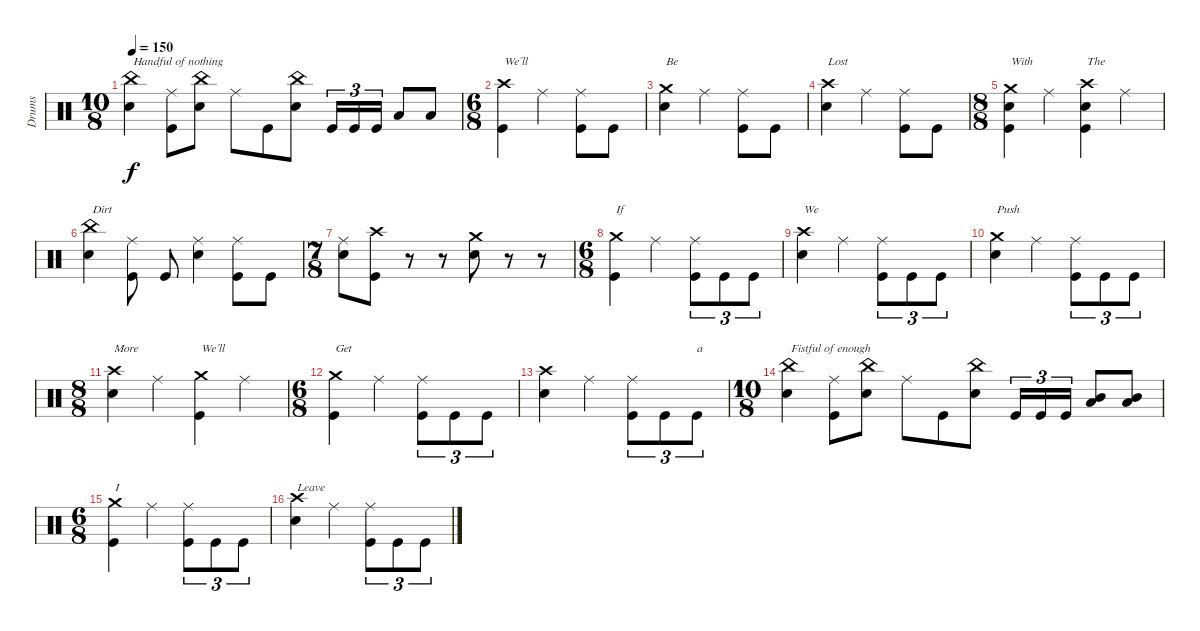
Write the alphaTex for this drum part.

\track ("Drums" "Drums") {instrument percussion}
\staff {score}
\articulation defaults
\ts (10 8)
\tempo 150
\clef neutral
\ks c
("China (hit)" "Snare (hit) 2").4{txt "Handful of nothing" dy f} ("Ride (middle)" "Kick (hit)").8 ("China (hit)" "Snare (hit) 2").8 "Ride (middle)".8 "Kick (hit)".8 ("China (hit)" "Snare (hit) 2").8 "Kick (hit)".16{tu (3 2)} "Kick (hit)".16{tu (3 2)} "Kick (hit)".16{tu (3 2)} "Low Floor Tom (hit)".8 "Low Floor Tom (hit)".8 |
\ts (6 8)
("Crash high (hit)" "Kick (hit)").4{txt "We´ll"} "Ride (middle)".4 ("Ride (middle)" "Kick (hit)").8 "Kick (hit)".8 |
("Crash medium (hit)" "Snare (hit) 2").4{txt "Be"} "Ride (middle)".4 ("Ride (middle)" "Kick (hit)").8 "Kick (hit)".8 |
("Crash high (hit)" "Snare (hit) 2").4{txt "Lost"} "Ride (middle)".4 ("Ride (middle)" "Kick (hit)").8 "Kick (hit)".8 |
\ts (8 8)
("Crash medium (hit)" "Snare (hit) 2" "Kick (hit)").4{txt "With"} "Ride (middle)".4 ("Crash high (hit)" "Snare (hit) 2" "Kick (hit)").4{txt "The"} "Ride (middle)".4 |
("China (hit)" "Snare (hit) 2").4{txt "Dirt"} ("Ride (middle)" "Kick (hit)").8 "Kick (hit)".8 ("Ride (middle)" "Snare (hit) 2").4 ("Ride (middle)" "Kick (hit)").8 "Kick (hit)".8 |
\ts (7 8)
("Ride (middle)" "Snare (hit) 2").8 ("Crash high (hit)" "Kick (hit)").8 r.8 r.8 ("Crash medium (hit)" "Snare (hit) 2").8 r.8 r.8 |
\ts (6 8)
("Crash medium (hit)" "Kick (hit)").4{txt "If"} "Ride (middle)".4 ("Ride (middle)" "Kick (hit)").8{tu (3 2)} "Kick (hit)".8{tu (3 2)} "Kick (hit)".8{tu (3 2)} |
("Crash high (hit)" "Snare (hit) 2").4{txt "We"} "Ride (middle)".4 ("Ride (middle)" "Kick (hit)").8{tu (3 2)} "Kick (hit)".8{tu (3 2)} "Kick (hit)".8{tu (3 2)} |
("Crash medium (hit)" "Snare (hit) 2").4{txt "Push"} "Ride (middle)".4 ("Ride (middle)" "Kick (hit)").8{tu (3 2)} "Kick (hit)".8{tu (3 2)} "Kick (hit)".8{tu (3 2)} |
\ts (8 8)
("Crash high (hit)" "Snare (hit) 2").4{txt "More"} "Ride (middle)".4 ("Crash medium (hit)" "Kick (hit)").4{txt "We´ll"} "Ride (middle)".4 |
\ts (6 8)
("Crash medium (hit)" "Kick (hit)").4{txt "Get"} "Ride (middle)".4 ("Ride (middle)" "Kick (hit)").8{tu (3 2)} "Kick (hit)".8{tu (3 2)} "Kick (hit)".8{tu (3 2)} |
("Crash high (hit)" "Snare (hit) 2").4 "Ride (middle)".4 ("Ride (middle)" "Kick (hit)").8{tu (3 2)} "Kick (hit)".8{tu (3 2)} "Kick (hit)".8{tu (3 2) txt "a"} |
\ts (10 8)
("China (hit)" "Snare (hit) 2").4{txt "Fistful of enough"} ("Ride (middle)" "Kick (hit)").8 ("China (hit)" "Snare (hit) 2").8 "Ride (middle)".8 "Kick (hit)".8 ("China (hit)" "Snare (hit) 2").8 "Kick (hit)".16{tu (3 2)} "Kick (hit)".16{tu (3 2)} "Kick (hit)".16{tu (3 2)} ("Mid Tom (hit)" "Low Floor Tom (hit)").8 ("Mid Tom (hit)" "Low Floor Tom (hit)").8 |
\ts (6 8)
("Crash medium (hit)" "Kick (hit)").4{txt "I"} "Ride (middle)".4 ("Ride (middle)" "Kick (hit)").8{tu (3 2)} "Kick (hit)".8{tu (3 2)} "Kick (hit)".8{tu (3 2)} |
("Crash high (hit)" "Snare (hit) 2").4{txt "Leave"} "Ride (middle)".4 ("Ride (middle)" "Kick (hit)").8{tu (3 2)} "Kick (hit)".8{tu (3 2)} "Kick (hit)".8{tu (3 2)}
